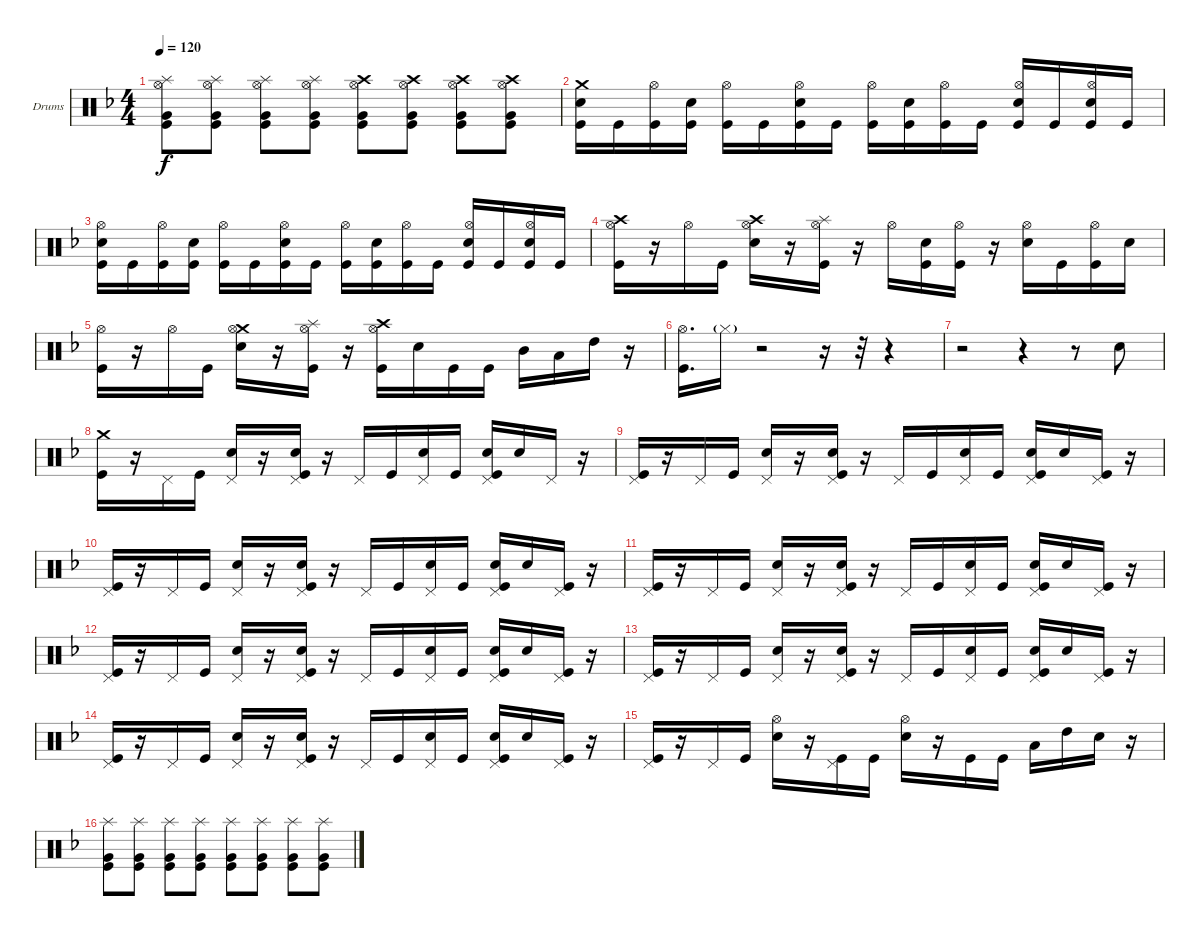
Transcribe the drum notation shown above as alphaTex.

\defaultSystemsLayout 4
\bracketExtendMode groupsimilarinstruments
\firstSystemTrackNameOrientation horizontal
\otherSystemsTrackNameOrientation horizontal
\track ("Drumkit" "Drums") {instrument percussion}
\staff {score}
\articulation defaults
\ts (4 4)
\tempo 120
\clef neutral
\scale
0.333333
\ks f
("Splash (hit)" "Very Low Tom (hit)" "Kick (hit)" "Hi-Hat (open)").8{dy f} ("Splash (hit)" "Very Low Tom (hit)" "Kick (hit)" "Hi-Hat (open)").8 ("Splash (hit)" "Very Low Tom (hit)" "Kick (hit)" "Hi-Hat (open)").8 ("Splash (hit)" "Very Low Tom (hit)" "Kick (hit)" "Hi-Hat (open)").8 ("Very Low Tom (hit)" "Kick (hit)" "Hi-Hat (open)" "Crash high (hit)").8 ("Very Low Tom (hit)" "Kick (hit)" "Hi-Hat (open)" "Crash high (hit)").8 ("Very Low Tom (hit)" "Kick (hit)" "Hi-Hat (open)" "Crash high (hit)").8 ("Very Low Tom (hit)" "Kick (hit)" "Hi-Hat (open)" "Crash high (hit)").8 |
\scale
0.333333 ("Crash medium (hit)" "Snare (hit) 2" "Kick (hit)").16 "Kick (hit)".16 ("Kick (hit)" "Hi-Hat (open)").16 ("Kick (hit)" "Snare (hit) 2").16 ("Kick (hit)" "Hi-Hat (open)").16 "Kick (hit)".16 ("Kick (hit)" "Snare (hit) 2" "Hi-Hat (open)").16 "Kick (hit)".16 ("Kick (hit)" "Hi-Hat (open)").16 ("Kick (hit)" "Snare (hit) 2").16 ("Kick (hit)" "Hi-Hat (open)").16 "Kick (hit)".16 ("Kick (hit)" "Snare (hit) 2" "Hi-Hat (open)").16 "Kick (hit)".16 ("Kick (hit)" "Snare (hit) 2" "Hi-Hat (open)").16 "Kick (hit)".16 |
\scale
0.333333 ("Snare (hit) 2" "Kick (hit)" "Hi-Hat (open)").16 "Kick (hit)".16 ("Kick (hit)" "Hi-Hat (open)").16 ("Kick (hit)" "Snare (hit) 2").16 ("Kick (hit)" "Hi-Hat (open)").16 "Kick (hit)".16 ("Kick (hit)" "Snare (hit) 2" "Hi-Hat (open)").16 "Kick (hit)".16 ("Kick (hit)" "Hi-Hat (open)").16 ("Kick (hit)" "Snare (hit) 2").16 ("Kick (hit)" "Hi-Hat (open)").16 "Kick (hit)".16 ("Kick (hit)" "Snare (hit) 2" "Hi-Hat (open)").16 "Kick (hit)".16 ("Kick (hit)" "Snare (hit) 2" "Hi-Hat (open)").16 "Kick (hit)".16 |
\scale
0.333333 ("Crash high (hit)" "Kick (hit)" "Hi-Hat (open)").16 r.16 "Hi-Hat (open)".16 "Kick (hit)".16 ("Snare (hit) 2" "Hi-Hat (open)" "Crash high (hit)").16 r.16 ("Splash (hit)" "Hi-Hat (open)" "Kick (hit)").16 r.16 "Hi-Hat (open)".16 ("Kick (hit)" "Snare (hit) 2").16 ("Kick (hit)" "Hi-Hat (open)").16 r.16 ("Snare (hit) 2" "Hi-Hat (open)").16 "Kick (hit)".16 ("Kick (hit)" "Hi-Hat (open)").16 "Snare (hit) 2".16 |
\scale
0.333333 ("Hi-Hat (open)" "Kick (hit)").16 r.16 "Hi-Hat (open)".16 "Kick (hit)".16 ("Crash medium (hit)" "Hi-Hat (open)" "Snare (hit) 2").16 r.16 ("Splash (hit)" "Hi-Hat (open)" "Kick (hit)").16 r.16 ("Kick (hit)" "Hi-Hat (open)" "Crash high (hit)").16 "Snare (hit) 2".16 "Kick (hit)".16 "Kick (hit)".16 "Mid Tom (hit)".16 "Low Tom (hit)".16 "High Tom (hit)".16 r.16 |
\scale
0.333333 ("Hi-Hat (open)" "Kick (hit)").16{d} "Hi-Hat (closed)"{g}.16 r.2 r.16 r.32 r.4 |
\scale
0.333333 r.2 r.4 r.8 "Snare (hit) 2".8 |
\scale
0.333333 ("Kick (hit)" "Crash medium (hit)").16 r.16 "Pedal Hi-Hat (hit)".16 "Kick (hit)".16 ("Snare (hit) 2" "Pedal Hi-Hat (hit)").16 r.16 ("Kick (hit)" "Snare (hit) 2" "Pedal Hi-Hat (hit)").16 r.16 "Pedal Hi-Hat (hit)".16 "Kick (hit)".16 ("Snare (hit) 2" "Pedal Hi-Hat (hit)").16 "Kick (hit)".16 ("Kick (hit)" "Snare (hit) 2" "Pedal Hi-Hat (hit)").16 "Snare (hit) 2".16 "Pedal Hi-Hat (hit)".16 r.16 |
\scale
0.333333 ("Kick (hit)" "Pedal Hi-Hat (hit)").16 r.16 "Pedal Hi-Hat (hit)".16 "Kick (hit)".16 ("Pedal Hi-Hat (hit)" "Snare (hit) 2").16 r.16 ("Kick (hit)" "Snare (hit) 2" "Pedal Hi-Hat (hit)").16 r.16 "Pedal Hi-Hat (hit)".16 "Kick (hit)".16 ("Snare (hit) 2" "Pedal Hi-Hat (hit)").16 "Kick (hit)".16 ("Kick (hit)" "Snare (hit) 2" "Pedal Hi-Hat (hit)").16 "Snare (hit) 2".16 ("Pedal Hi-Hat (hit)" "Kick (hit)").16 r.16 |
\scale
0.333333 ("Kick (hit)" "Pedal Hi-Hat (hit)").16 r.16 "Pedal Hi-Hat (hit)".16 "Kick (hit)".16 ("Pedal Hi-Hat (hit)" "Snare (hit) 2").16 r.16 ("Kick (hit)" "Snare (hit) 2" "Pedal Hi-Hat (hit)").16 r.16 "Pedal Hi-Hat (hit)".16 "Kick (hit)".16 ("Snare (hit) 2" "Pedal Hi-Hat (hit)").16 "Kick (hit)".16 ("Kick (hit)" "Snare (hit) 2" "Pedal Hi-Hat (hit)").16 "Snare (hit) 2".16 ("Pedal Hi-Hat (hit)" "Kick (hit)").16 r.16 |
\scale
0.333333 ("Kick (hit)" "Pedal Hi-Hat (hit)").16 r.16 "Pedal Hi-Hat (hit)".16 "Kick (hit)".16 ("Pedal Hi-Hat (hit)" "Snare (hit) 2").16 r.16 ("Kick (hit)" "Snare (hit) 2" "Pedal Hi-Hat (hit)").16 r.16 "Pedal Hi-Hat (hit)".16 "Kick (hit)".16 ("Snare (hit) 2" "Pedal Hi-Hat (hit)").16 "Kick (hit)".16 ("Kick (hit)" "Snare (hit) 2" "Pedal Hi-Hat (hit)").16 "Snare (hit) 2".16 ("Pedal Hi-Hat (hit)" "Kick (hit)").16 r.16 |
\scale
0.333333 ("Kick (hit)" "Pedal Hi-Hat (hit)").16 r.16 "Pedal Hi-Hat (hit)".16 "Kick (hit)".16 ("Pedal Hi-Hat (hit)" "Snare (hit) 2").16 r.16 ("Kick (hit)" "Snare (hit) 2" "Pedal Hi-Hat (hit)").16 r.16 "Pedal Hi-Hat (hit)".16 "Kick (hit)".16 ("Snare (hit) 2" "Pedal Hi-Hat (hit)").16 "Kick (hit)".16 ("Kick (hit)" "Snare (hit) 2" "Pedal Hi-Hat (hit)").16 "Snare (hit) 2".16 ("Pedal Hi-Hat (hit)" "Kick (hit)").16 r.16 |
\scale
0.333333 ("Kick (hit)" "Pedal Hi-Hat (hit)").16 r.16 "Pedal Hi-Hat (hit)".16 "Kick (hit)".16 ("Pedal Hi-Hat (hit)" "Snare (hit) 2").16 r.16 ("Kick (hit)" "Snare (hit) 2" "Pedal Hi-Hat (hit)").16 r.16 "Pedal Hi-Hat (hit)".16 "Kick (hit)".16 ("Snare (hit) 2" "Pedal Hi-Hat (hit)").16 "Kick (hit)".16 ("Kick (hit)" "Snare (hit) 2" "Pedal Hi-Hat (hit)").16 "Snare (hit) 2".16 ("Pedal Hi-Hat (hit)" "Kick (hit)").16 r.16 |
\scale
0.333333 ("Kick (hit)" "Pedal Hi-Hat (hit)").16 r.16 "Pedal Hi-Hat (hit)".16 "Kick (hit)".16 ("Pedal Hi-Hat (hit)" "Snare (hit) 2").16 r.16 ("Kick (hit)" "Snare (hit) 2" "Pedal Hi-Hat (hit)").16 r.16 "Pedal Hi-Hat (hit)".16 "Kick (hit)".16 ("Snare (hit) 2" "Pedal Hi-Hat (hit)").16 "Kick (hit)".16 ("Kick (hit)" "Snare (hit) 2" "Pedal Hi-Hat (hit)").16 "Snare (hit) 2".16 ("Pedal Hi-Hat (hit)" "Kick (hit)").16 r.16 |
\scale
0.333333 ("Kick (hit)" "Pedal Hi-Hat (hit)").16 r.16 "Pedal Hi-Hat (hit)".16 "Kick (hit)".16 ("Snare (hit) 2" "Hi-Hat (open)").16 r.16 ("Kick (hit)" "Pedal Hi-Hat (hit)").16 "Kick (hit)".16 ("Hi-Hat (open)" "Snare (hit) 2").16 r.16 "Kick (hit)".16 "Kick (hit)".16 "Low Tom (hit)".16 "High Tom (hit)".16 "Snare (hit) 2".16 r.16 |
\scale
0.333333 ("Splash (hit)" "Very Low Tom (hit)" "Kick (hit)").8 ("Splash (hit)" "Very Low Tom (hit)" "Kick (hit)").8 ("Splash (hit)" "Very Low Tom (hit)" "Kick (hit)").8 ("Splash (hit)" "Very Low Tom (hit)" "Kick (hit)").8 ("Splash (hit)" "Very Low Tom (hit)" "Kick (hit)").8 ("Splash (hit)" "Very Low Tom (hit)" "Kick (hit)").8 ("Splash (hit)" "Very Low Tom (hit)" "Kick (hit)").8 ("Splash (hit)" "Very Low Tom (hit)" "Kick (hit)").8
